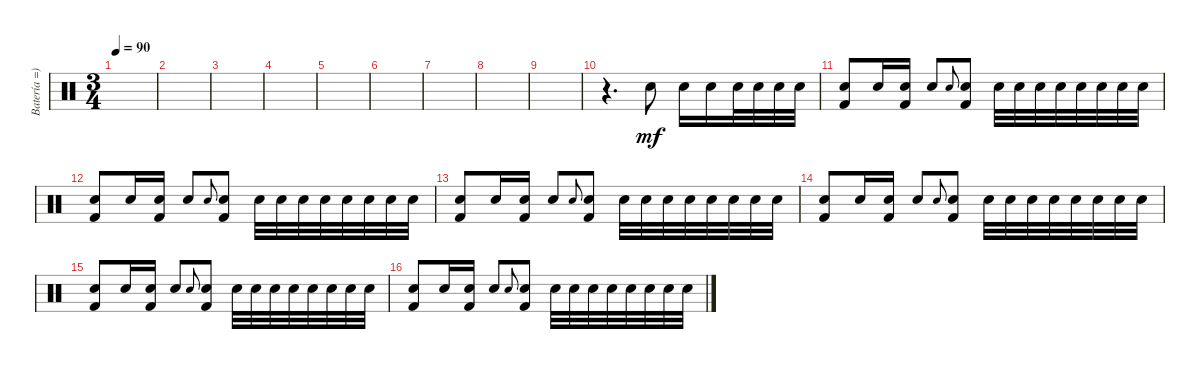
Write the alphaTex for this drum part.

\track ("Batería =)" "Batería =)") {instrument percussion}
\staff {score}
\articulation defaults
\ts (3 4)
\tempo 90
\clef neutral
\ks c
|
|
|
|
|
|
|
|
|
r.4{d} "Electric Snare (hit)".8{dy mf} "Electric Snare (hit)".16 "Electric Snare (hit)".16 "Electric Snare (hit)".32 "Electric Snare (hit)".32 "Electric Snare (hit)".32 "Electric Snare (hit)".32 |
("Electric Snare (hit)" "Kick (hit) 2").8 "Electric Snare (hit)".16 ("Electric Snare (hit)" "Kick (hit) 2").16 "Electric Snare (hit)".8 "Electric Snare (hit)".8{gr onbeat} ("Electric Snare (hit)" "Kick (hit) 2").8 "Electric Snare (hit)".32 "Electric Snare (hit)".32 "Electric Snare (hit)".32 "Electric Snare (hit)".32 "Electric Snare (hit)".32 "Electric Snare (hit)".32 "Electric Snare (hit)".32 "Electric Snare (hit)".32 |
("Electric Snare (hit)" "Kick (hit) 2").8 "Electric Snare (hit)".16 ("Electric Snare (hit)" "Kick (hit) 2").16 "Electric Snare (hit)".8 "Electric Snare (hit)".8{gr onbeat} ("Electric Snare (hit)" "Kick (hit) 2").8 "Electric Snare (hit)".32 "Electric Snare (hit)".32 "Electric Snare (hit)".32 "Electric Snare (hit)".32 "Electric Snare (hit)".32 "Electric Snare (hit)".32 "Electric Snare (hit)".32 "Electric Snare (hit)".32 |
("Electric Snare (hit)" "Kick (hit) 2").8 "Electric Snare (hit)".16 ("Electric Snare (hit)" "Kick (hit) 2").16 "Electric Snare (hit)".8 "Electric Snare (hit)".8{gr onbeat} ("Electric Snare (hit)" "Kick (hit) 2").8 "Electric Snare (hit)".32 "Electric Snare (hit)".32 "Electric Snare (hit)".32 "Electric Snare (hit)".32 "Electric Snare (hit)".32 "Electric Snare (hit)".32 "Electric Snare (hit)".32 "Electric Snare (hit)".32 |
("Electric Snare (hit)" "Kick (hit) 2").8 "Electric Snare (hit)".16 ("Electric Snare (hit)" "Kick (hit) 2").16 "Electric Snare (hit)".8 "Electric Snare (hit)".8{gr onbeat} ("Electric Snare (hit)" "Kick (hit) 2").8 "Electric Snare (hit)".32 "Electric Snare (hit)".32 "Electric Snare (hit)".32 "Electric Snare (hit)".32 "Electric Snare (hit)".32 "Electric Snare (hit)".32 "Electric Snare (hit)".32 "Electric Snare (hit)".32 |
("Electric Snare (hit)" "Kick (hit) 2").8 "Electric Snare (hit)".16 ("Electric Snare (hit)" "Kick (hit) 2").16 "Electric Snare (hit)".8 "Electric Snare (hit)".8{gr onbeat} ("Electric Snare (hit)" "Kick (hit) 2").8 "Electric Snare (hit)".32 "Electric Snare (hit)".32 "Electric Snare (hit)".32 "Electric Snare (hit)".32 "Electric Snare (hit)".32 "Electric Snare (hit)".32 "Electric Snare (hit)".32 "Electric Snare (hit)".32 |
("Electric Snare (hit)" "Kick (hit) 2").8 "Electric Snare (hit)".16 ("Electric Snare (hit)" "Kick (hit) 2").16 "Electric Snare (hit)".8 "Electric Snare (hit)".8{gr onbeat} ("Electric Snare (hit)" "Kick (hit) 2").8 "Electric Snare (hit)".32 "Electric Snare (hit)".32 "Electric Snare (hit)".32 "Electric Snare (hit)".32 "Electric Snare (hit)".32 "Electric Snare (hit)".32 "Electric Snare (hit)".32 "Electric Snare (hit)".32
